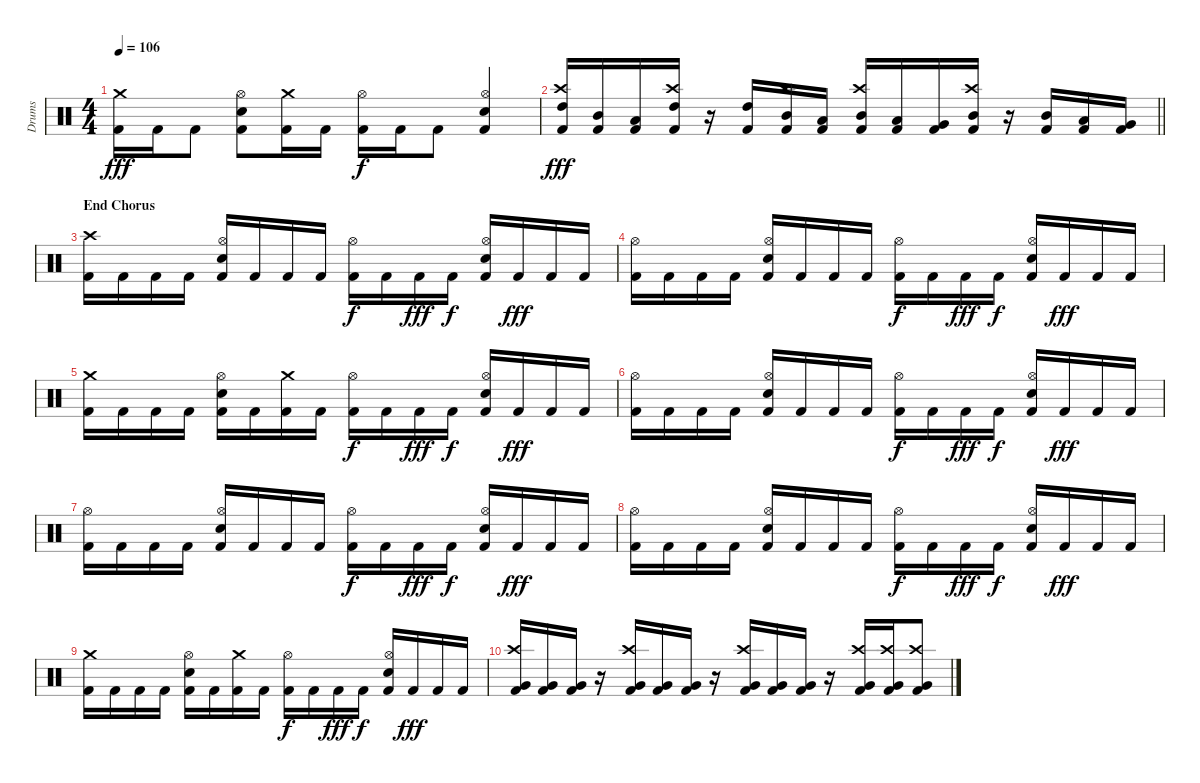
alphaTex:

\track ("Drums" "Drums") {instrument percussion}
\staff {score}
\articulation defaults
\ts (4 4)
\tempo 106
\clef neutral
\ks c
("Crash medium (hit)" "Kick (hit) 2").16{dy fff} "Kick (hit) 2".16 "Kick (hit) 2".8 ("Hi-Hat (open)" "Snare (hit) 2" "Kick (hit) 2").8 ("Crash medium (hit)" "Kick (hit) 2").16 "Kick (hit) 2".16 ("Hi-Hat (open)" "Kick (hit) 2").16{dy f} "Kick (hit) 2".16 "Kick (hit) 2".8 ("Hi-Hat (open)" "Snare (hit) 2" "Kick (hit) 2").4 |
\barLineRight lightlight
("Crash high (hit)" "High Tom (hit)" "Kick (hit) 2").16{dy fff} ("Mid Tom (hit)" "Kick (hit) 2").16 ("Low Tom (hit)" "Kick (hit) 2").16 ("Crash high (hit)" "High Tom (hit)" "Kick (hit) 2").16 r.16 ("High Tom (hit)" "Kick (hit) 2").16 ("Crash high (hit)" "Mid Tom (hit)" "Kick (hit) 2").16 ("Low Tom (hit)" "Kick (hit) 2").16 ("Crash high (hit)" "Mid Tom (hit)" "Kick (hit) 2").16 ("Low Tom (hit)" "Kick (hit) 2").16 ("Very Low Tom (hit)" "Kick (hit) 2").16 ("Crash high (hit)" "Mid Tom (hit)" "Kick (hit) 2").16 r.16 ("Mid Tom (hit)" "Kick (hit) 2").16 ("Low Tom (hit)" "Kick (hit) 2").16 ("Very Low Tom (hit)" "Kick (hit) 2").16 |
\section ("" "End Chorus")
("Crash high (hit)" "Kick (hit) 2").16 "Kick (hit) 2".16 "Kick (hit) 2".16 "Kick (hit) 2".16 ("Hi-Hat (open)" "Snare (hit) 2" "Kick (hit) 2").16 "Kick (hit) 2".16 "Kick (hit) 2".16 "Kick (hit) 2".16 ("Hi-Hat (open)" "Kick (hit) 2").16{dy f} "Kick (hit) 2".16 "Kick (hit) 2".16{dy fff} "Kick (hit) 2".16{dy f} ("Hi-Hat (open)" "Snare (hit) 2" "Kick (hit) 2").16 "Kick (hit) 2".16{dy fff} "Kick (hit) 2".16 "Kick (hit) 2".16 |
("Hi-Hat (open)" "Kick (hit) 2").16 "Kick (hit) 2".16 "Kick (hit) 2".16 "Kick (hit) 2".16 ("Hi-Hat (open)" "Snare (hit) 2" "Kick (hit) 2").16 "Kick (hit) 2".16 "Kick (hit) 2".16 "Kick (hit) 2".16 ("Hi-Hat (open)" "Kick (hit) 2").16{dy f} "Kick (hit) 2".16 "Kick (hit) 2".16{dy fff} "Kick (hit) 2".16{dy f} ("Hi-Hat (open)" "Snare (hit) 2" "Kick (hit) 2").16 "Kick (hit) 2".16{dy fff} "Kick (hit) 2".16 "Kick (hit) 2".16 |
("Crash medium (hit)" "Kick (hit) 2").16 "Kick (hit) 2".16 "Kick (hit) 2".16 "Kick (hit) 2".16 ("Hi-Hat (open)" "Snare (hit) 2" "Kick (hit) 2").16 "Kick (hit) 2".16 ("Crash medium (hit)" "Kick (hit) 2").16 "Kick (hit) 2".16 ("Hi-Hat (open)" "Kick (hit) 2").16{dy f} "Kick (hit) 2".16 "Kick (hit) 2".16{dy fff} "Kick (hit) 2".16{dy f} ("Hi-Hat (open)" "Snare (hit) 2" "Kick (hit) 2").16 "Kick (hit) 2".16{dy fff} "Kick (hit) 2".16 "Kick (hit) 2".16 |
("Hi-Hat (open)" "Kick (hit) 2").16 "Kick (hit) 2".16 "Kick (hit) 2".16 "Kick (hit) 2".16 ("Hi-Hat (open)" "Snare (hit) 2" "Kick (hit) 2").16 "Kick (hit) 2".16 "Kick (hit) 2".16 "Kick (hit) 2".16 ("Hi-Hat (open)" "Kick (hit) 2").16{dy f} "Kick (hit) 2".16 "Kick (hit) 2".16{dy fff} "Kick (hit) 2".16{dy f} ("Hi-Hat (open)" "Snare (hit) 2" "Kick (hit) 2").16 "Kick (hit) 2".16{dy fff} "Kick (hit) 2".16 "Kick (hit) 2".16 |
("Hi-Hat (open)" "Kick (hit) 2").16 "Kick (hit) 2".16 "Kick (hit) 2".16 "Kick (hit) 2".16 ("Hi-Hat (open)" "Snare (hit) 2" "Kick (hit) 2").16 "Kick (hit) 2".16 "Kick (hit) 2".16 "Kick (hit) 2".16 ("Hi-Hat (open)" "Kick (hit) 2").16{dy f} "Kick (hit) 2".16 "Kick (hit) 2".16{dy fff} "Kick (hit) 2".16{dy f} ("Hi-Hat (open)" "Snare (hit) 2" "Kick (hit) 2").16 "Kick (hit) 2".16{dy fff} "Kick (hit) 2".16 "Kick (hit) 2".16 |
("Hi-Hat (open)" "Kick (hit) 2").16 "Kick (hit) 2".16 "Kick (hit) 2".16 "Kick (hit) 2".16 ("Hi-Hat (open)" "Snare (hit) 2" "Kick (hit) 2").16 "Kick (hit) 2".16 "Kick (hit) 2".16 "Kick (hit) 2".16 ("Hi-Hat (open)" "Kick (hit) 2").16{dy f} "Kick (hit) 2".16 "Kick (hit) 2".16{dy fff} "Kick (hit) 2".16{dy f} ("Hi-Hat (open)" "Snare (hit) 2" "Kick (hit) 2").16 "Kick (hit) 2".16{dy fff} "Kick (hit) 2".16 "Kick (hit) 2".16 |
("Crash medium (hit)" "Kick (hit) 2").16 "Kick (hit) 2".16 "Kick (hit) 2".16 "Kick (hit) 2".16 ("Hi-Hat (open)" "Snare (hit) 2" "Kick (hit) 2").16 "Kick (hit) 2".16 ("Crash medium (hit)" "Kick (hit) 2").16 "Kick (hit) 2".16 ("Hi-Hat (open)" "Kick (hit) 2").16{dy f} "Kick (hit) 2".16 "Kick (hit) 2".16{dy fff} "Kick (hit) 2".16{dy f} ("Hi-Hat (open)" "Snare (hit) 2" "Kick (hit) 2").16 "Kick (hit) 2".16{dy fff} "Kick (hit) 2".16 "Kick (hit) 2".16 |
("Crash high (hit)" "Very Low Tom (hit)" "Kick (hit) 2").16 ("Very Low Tom (hit)" "Kick (hit) 2").16 ("Very Low Tom (hit)" "Kick (hit) 2").16 r.16 ("Crash high (hit)" "Very Low Tom (hit)" "Kick (hit) 2").16 ("Very Low Tom (hit)" "Kick (hit) 2").16 ("Very Low Tom (hit)" "Kick (hit) 2").16 r.16 ("Crash high (hit)" "Very Low Tom (hit)" "Kick (hit) 2").16 ("Very Low Tom (hit)" "Kick (hit) 2").16 ("Very Low Tom (hit)" "Kick (hit) 2").16 r.16 ("Crash high (hit)" "Very Low Tom (hit)" "Kick (hit) 2").16 ("Crash high (hit)" "Very Low Tom (hit)" "Kick (hit) 2").16 ("Crash high (hit)" "Very Low Tom (hit)" "Kick (hit) 2").8
